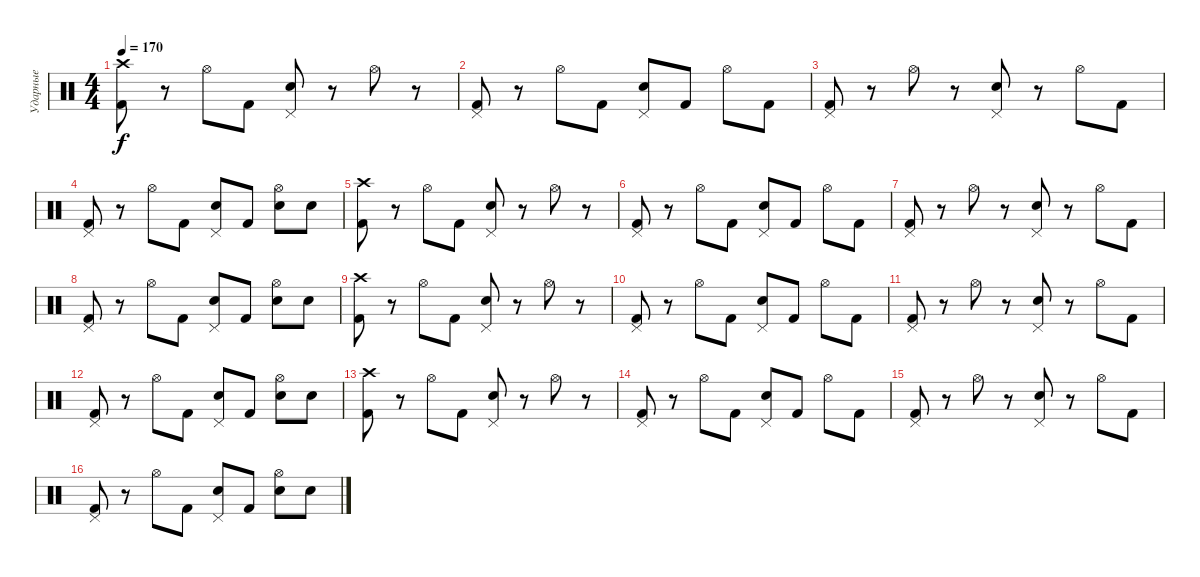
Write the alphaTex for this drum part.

\track ("Ударные" "Ударные") {instrument percussion}
\staff {score}
\articulation defaults
\ts (4 4)
\tempo 170
\clef neutral
\ks c
("Crash high (hit)" "Kick (hit) 2").8{dy f} r.8 "Hi-Hat (open)".8 "Kick (hit) 2".8 ("Pedal Hi-Hat (hit)" "Snare (hit) 2").8 r.8 "Hi-Hat (open)".8 r.8 |
("Pedal Hi-Hat (hit)" "Kick (hit) 2").8 r.8 "Hi-Hat (open)".8 "Kick (hit) 2".8 ("Pedal Hi-Hat (hit)" "Snare (hit) 2").8 "Kick (hit) 2".8 "Hi-Hat (open)".8 "Kick (hit) 2".8 |
("Pedal Hi-Hat (hit)" "Kick (hit) 2").8 r.8 "Hi-Hat (open)".8 r.8 ("Pedal Hi-Hat (hit)" "Snare (hit) 2").8 r.8 "Hi-Hat (open)".8 "Kick (hit) 2".8 |
("Pedal Hi-Hat (hit)" "Kick (hit) 2").8 r.8 "Hi-Hat (open)".8 "Kick (hit) 2".8 ("Pedal Hi-Hat (hit)" "Snare (hit) 2").8 "Kick (hit) 2".8 ("Hi-Hat (open)" "Snare (hit) 2").8 "Snare (hit) 2".8 |
("Crash high (hit)" "Kick (hit) 2").8 r.8 "Hi-Hat (open)".8 "Kick (hit) 2".8 ("Pedal Hi-Hat (hit)" "Snare (hit) 2").8 r.8 "Hi-Hat (open)".8 r.8 |
("Pedal Hi-Hat (hit)" "Kick (hit) 2").8 r.8 "Hi-Hat (open)".8 "Kick (hit) 2".8 ("Pedal Hi-Hat (hit)" "Snare (hit) 2").8 "Kick (hit) 2".8 "Hi-Hat (open)".8 "Kick (hit) 2".8 |
("Pedal Hi-Hat (hit)" "Kick (hit) 2").8 r.8 "Hi-Hat (open)".8 r.8 ("Pedal Hi-Hat (hit)" "Snare (hit) 2").8 r.8 "Hi-Hat (open)".8 "Kick (hit) 2".8 |
("Pedal Hi-Hat (hit)" "Kick (hit) 2").8 r.8 "Hi-Hat (open)".8 "Kick (hit) 2".8 ("Pedal Hi-Hat (hit)" "Snare (hit) 2").8 "Kick (hit) 2".8 ("Hi-Hat (open)" "Snare (hit) 2").8 "Snare (hit) 2".8 |
("Crash high (hit)" "Kick (hit) 2").8 r.8 "Hi-Hat (open)".8 "Kick (hit) 2".8 ("Pedal Hi-Hat (hit)" "Snare (hit) 2").8 r.8 "Hi-Hat (open)".8 r.8 |
("Pedal Hi-Hat (hit)" "Kick (hit) 2").8 r.8 "Hi-Hat (open)".8 "Kick (hit) 2".8 ("Pedal Hi-Hat (hit)" "Snare (hit) 2").8 "Kick (hit) 2".8 "Hi-Hat (open)".8 "Kick (hit) 2".8 |
("Pedal Hi-Hat (hit)" "Kick (hit) 2").8 r.8 "Hi-Hat (open)".8 r.8 ("Pedal Hi-Hat (hit)" "Snare (hit) 2").8 r.8 "Hi-Hat (open)".8 "Kick (hit) 2".8 |
("Pedal Hi-Hat (hit)" "Kick (hit) 2").8 r.8 "Hi-Hat (open)".8 "Kick (hit) 2".8 ("Pedal Hi-Hat (hit)" "Snare (hit) 2").8 "Kick (hit) 2".8 ("Hi-Hat (open)" "Snare (hit) 2").8 "Snare (hit) 2".8 |
("Crash high (hit)" "Kick (hit) 2").8 r.8 "Hi-Hat (open)".8 "Kick (hit) 2".8 ("Pedal Hi-Hat (hit)" "Snare (hit) 2").8 r.8 "Hi-Hat (open)".8 r.8 |
("Pedal Hi-Hat (hit)" "Kick (hit) 2").8 r.8 "Hi-Hat (open)".8 "Kick (hit) 2".8 ("Pedal Hi-Hat (hit)" "Snare (hit) 2").8 "Kick (hit) 2".8 "Hi-Hat (open)".8 "Kick (hit) 2".8 |
("Pedal Hi-Hat (hit)" "Kick (hit) 2").8 r.8 "Hi-Hat (open)".8 r.8 ("Pedal Hi-Hat (hit)" "Snare (hit) 2").8 r.8 "Hi-Hat (open)".8 "Kick (hit) 2".8 |
("Pedal Hi-Hat (hit)" "Kick (hit) 2").8 r.8 "Hi-Hat (open)".8 "Kick (hit) 2".8 ("Pedal Hi-Hat (hit)" "Snare (hit) 2").8 "Kick (hit) 2".8 ("Hi-Hat (open)" "Snare (hit) 2").8 "Snare (hit) 2".8
